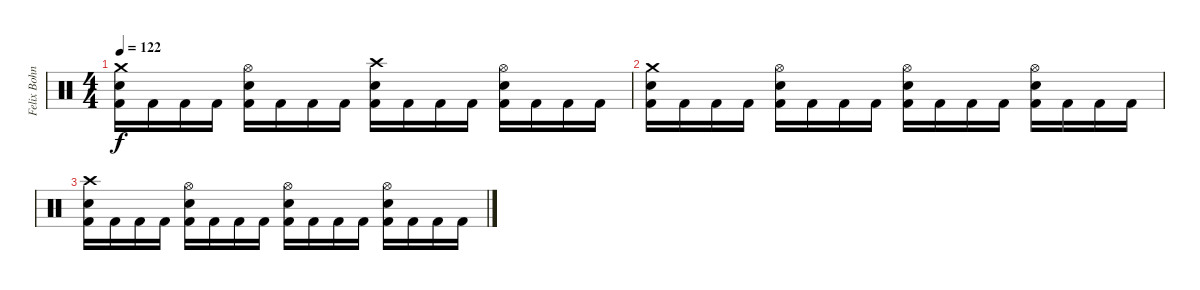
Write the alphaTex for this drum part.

\track ("Felix Bohnke" "Felix Bohn") {instrument percussion}
\staff {score}
\articulation defaults
\ts (4 4)
\tempo 122
\clef neutral
\ks c
("Crash medium (hit)" "Snare (hit) 2" "Kick (hit) 2").16{dy f} "Kick (hit) 2".16 "Kick (hit) 2".16 "Kick (hit) 2".16 ("Hi-Hat (open)" "Snare (hit) 2" "Kick (hit) 2").16 "Kick (hit) 2".16 "Kick (hit) 2".16 "Kick (hit) 2".16 ("Crash high (hit)" "Snare (hit) 2" "Kick (hit) 2").16 "Kick (hit) 2".16 "Kick (hit) 2".16 "Kick (hit) 2".16 ("Hi-Hat (open)" "Snare (hit) 2" "Kick (hit) 2").16 "Kick (hit) 2".16 "Kick (hit) 2".16 "Kick (hit) 2".16 |
("Crash medium (hit)" "Snare (hit) 2" "Kick (hit) 2").16{volume 0} "Kick (hit) 2".16 "Kick (hit) 2".16 "Kick (hit) 2".16 ("Hi-Hat (open)" "Snare (hit) 2" "Kick (hit) 2").16 "Kick (hit) 2".16 "Kick (hit) 2".16 "Kick (hit) 2".16 ("Hi-Hat (open)" "Snare (hit) 2" "Kick (hit) 2").16 "Kick (hit) 2".16 "Kick (hit) 2".16 "Kick (hit) 2".16 ("Hi-Hat (open)" "Snare (hit) 2" "Kick (hit) 2").16 "Kick (hit) 2".16 "Kick (hit) 2".16 "Kick (hit) 2".16 |
("Crash high (hit)" "Snare (hit) 2" "Kick (hit) 2").16 "Kick (hit) 2".16 "Kick (hit) 2".16 "Kick (hit) 2".16 ("Hi-Hat (open)" "Snare (hit) 2" "Kick (hit) 2").16 "Kick (hit) 2".16 "Kick (hit) 2".16 "Kick (hit) 2".16 ("Hi-Hat (open)" "Snare (hit) 2" "Kick (hit) 2").16 "Kick (hit) 2".16 "Kick (hit) 2".16 "Kick (hit) 2".16 ("Hi-Hat (open)" "Snare (hit) 2" "Kick (hit) 2").16 "Kick (hit) 2".16 "Kick (hit) 2".16 "Kick (hit) 2".16
